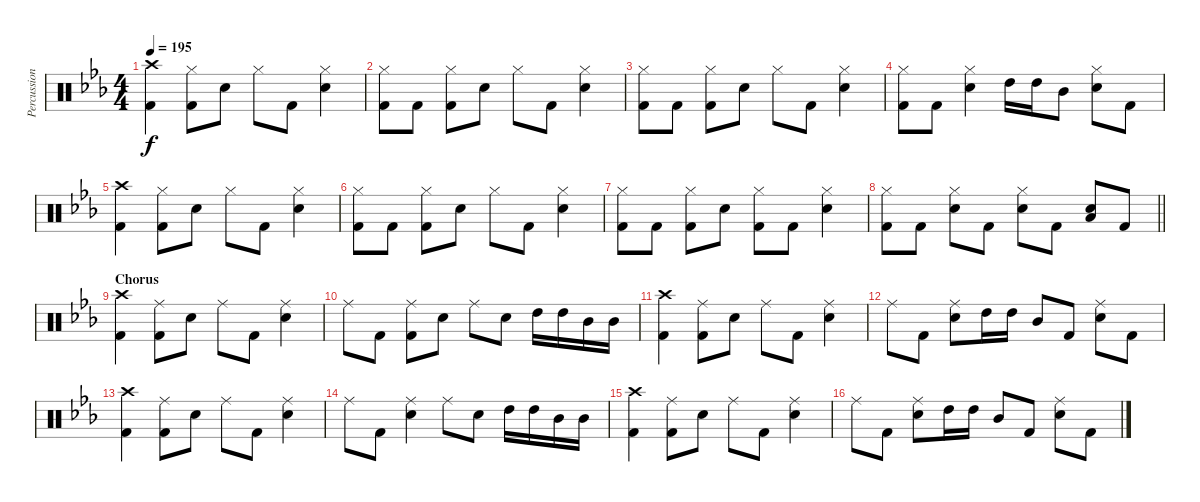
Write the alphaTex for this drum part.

\track ("Percussion" "Percussion") {instrument percussion}
\staff {score}
\articulation defaults
\ts (4 4)
\tempo 195
\clef neutral
\ks eb
("Crash high (hit)" "Kick (hit) 2").4{dy f} ("Hi-Hat (closed)" "Kick (hit) 2").8 "Snare (hit) 2".8 "Hi-Hat (closed)".8 "Kick (hit) 2".8 ("Hi-Hat (closed)" "Snare (hit) 2").4 |
("Hi-Hat (closed)" "Kick (hit) 2").8 "Kick (hit) 2".8 ("Hi-Hat (closed)" "Kick (hit) 2").8 "Snare (hit) 2".8 "Hi-Hat (closed)".8 "Kick (hit) 2".8 ("Hi-Hat (closed)" "Snare (hit) 2").4 |
("Hi-Hat (closed)" "Kick (hit) 2").8 "Kick (hit) 2".8 ("Hi-Hat (closed)" "Kick (hit) 2").8 "Snare (hit) 2".8 "Hi-Hat (closed)".8 "Kick (hit) 2".8 ("Hi-Hat (closed)" "Snare (hit) 2").4 |
("Hi-Hat (closed)" "Kick (hit) 2").8 "Kick (hit) 2".8 ("Hi-Hat (closed)" "Snare (hit) 2").4 "High Tom (hit)".16 "High Tom (hit)".16 "Mid Tom (hit)".8 ("Hi-Hat (closed)" "Snare (hit) 2").8 "Kick (hit) 2".8 |
("Crash high (hit)" "Kick (hit) 2").4 ("Hi-Hat (closed)" "Kick (hit) 2").8 "Snare (hit) 2".8 "Hi-Hat (closed)".8 "Kick (hit) 2".8 ("Hi-Hat (closed)" "Snare (hit) 2").4 |
("Hi-Hat (closed)" "Kick (hit) 2").8 "Kick (hit) 2".8 ("Hi-Hat (closed)" "Kick (hit) 2").8 "Snare (hit) 2".8 "Hi-Hat (closed)".8 "Kick (hit) 2".8 ("Hi-Hat (closed)" "Snare (hit) 2").4 |
("Hi-Hat (closed)" "Kick (hit) 2").8 "Kick (hit) 2".8 ("Hi-Hat (closed)" "Kick (hit) 2").8 "Snare (hit) 2".8 ("Hi-Hat (closed)" "Kick (hit) 2").8 "Kick (hit) 2".8 ("Hi-Hat (closed)" "Snare (hit) 2").4 |
\barLineRight lightlight
("Hi-Hat (closed)" "Kick (hit) 2").8 "Kick (hit) 2".8 ("Hi-Hat (closed)" "Snare (hit) 2").8 "Kick (hit) 2".8 ("Hi-Hat (closed)" "Snare (hit) 2").8 "Kick (hit) 2".8 ("Low Tom (hit)" "Snare (hit) 2").8 "Kick (hit) 2".8 |
\section ("" "Chorus")
("Crash high (hit)" "Kick (hit) 2").4 ("Ride (middle)" "Kick (hit) 2").8 "Snare (hit) 2".8 "Ride (middle)".8 "Kick (hit) 2".8 ("Ride (middle)" "Snare (hit) 2").4 |
"Ride (middle)".8 "Kick (hit) 2".8 ("Ride (middle)" "Kick (hit) 2").8 "Snare (hit) 2".8 "Ride (middle)".8 "Snare (hit) 2".8 "High Tom (hit)".16 "High Tom (hit)".16 "Mid Tom (hit)".16 "Mid Tom (hit)".16 |
("Crash high (hit)" "Kick (hit) 2").4 ("Ride (middle)" "Kick (hit) 2").8 "Snare (hit) 2".8 "Ride (middle)".8 "Kick (hit) 2".8 ("Ride (middle)" "Snare (hit) 2").4 |
"Ride (middle)".8 "Kick (hit) 2".8 ("Ride (middle)" "Snare (hit) 2").8 "High Tom (hit)".16 "High Tom (hit)".16 "Mid Tom (hit)".8 "Kick (hit) 2".8 ("Ride (middle)" "Snare (hit) 2").8 "Kick (hit) 2".8 |
("Crash high (hit)" "Kick (hit) 2").4 ("Ride (middle)" "Kick (hit) 2").8 "Snare (hit) 2".8 "Ride (middle)".8 "Kick (hit) 2".8 ("Ride (middle)" "Snare (hit) 2").4 |
"Ride (middle)".8 "Kick (hit) 2".8 ("Ride (middle)" "Snare (hit) 2").4 "Ride (middle)".8 "Snare (hit) 2".8 "High Tom (hit)".16 "High Tom (hit)".16 "Mid Tom (hit)".16 "Mid Tom (hit)".16 |
("Crash high (hit)" "Kick (hit) 2").4 ("Ride (middle)" "Kick (hit) 2").8 "Snare (hit) 2".8 "Ride (middle)".8 "Kick (hit) 2".8 ("Ride (middle)" "Snare (hit) 2").4 |
"Ride (middle)".8 "Kick (hit) 2".8 ("Ride (middle)" "Snare (hit) 2").8 "High Tom (hit)".16 "High Tom (hit)".16 "Mid Tom (hit)".8 "Kick (hit) 2".8 ("Ride (middle)" "Snare (hit) 2").8 "Kick (hit) 2".8
